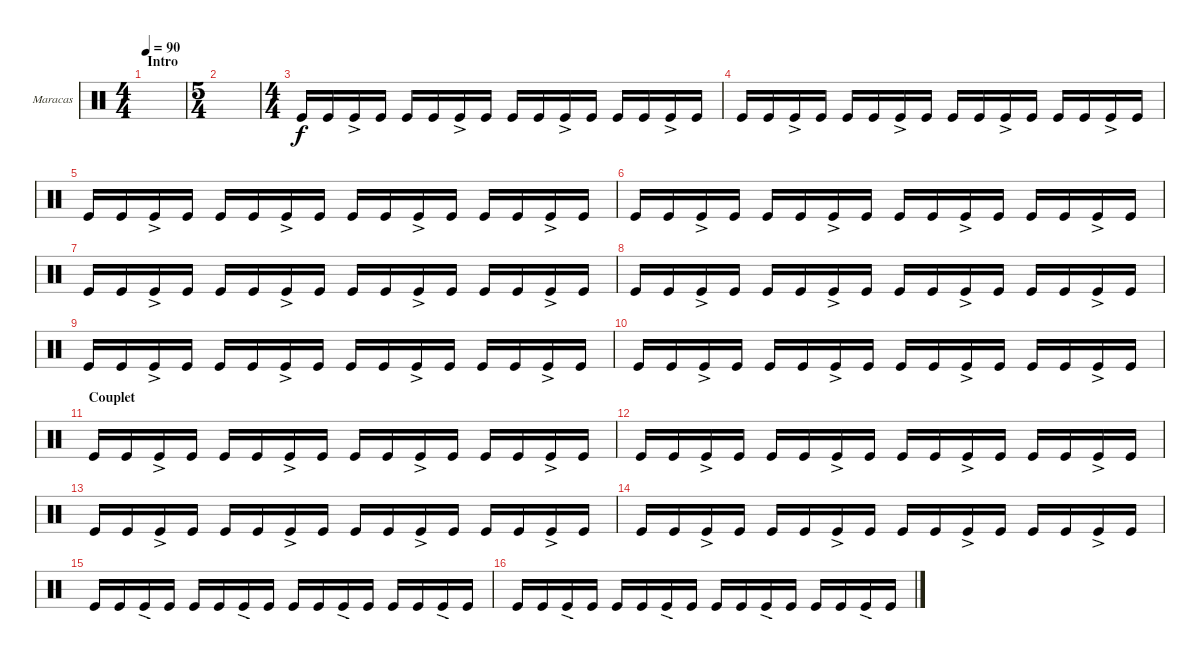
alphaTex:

\defaultSystemsLayout 4
\bracketExtendMode groupsimilarinstruments
\firstSystemTrackNameOrientation horizontal
\otherSystemsTrackNameOrientation horizontal
\track ("Maracas" "Maracas") {instrument percussion}
\staff {score}
\articulation defaults
\ts (4 4)
\section ("" "Intro")
\tempo 90
\clef neutral
\scale
0.474178
\ks c
|
\ts (5 4)
\scale
0.262911 |
\ts (4 4)
\scale
0.262911 "Kick (hit)".16 "Kick (hit)".16 "Kick (hit)"{ac}.16 "Kick (hit)".16 "Kick (hit)".16 "Kick (hit)".16 "Kick (hit)"{ac}.16 "Kick (hit)".16 "Kick (hit)".16 "Kick (hit)".16 "Kick (hit)"{ac}.16 "Kick (hit)".16 "Kick (hit)".16 "Kick (hit)".16 "Kick (hit)"{ac}.16 "Kick (hit)".16 |
\scale
0.333333 "Kick (hit)".16 "Kick (hit)".16 "Kick (hit)"{ac}.16 "Kick (hit)".16 "Kick (hit)".16 "Kick (hit)".16 "Kick (hit)"{ac}.16 "Kick (hit)".16 "Kick (hit)".16 "Kick (hit)".16 "Kick (hit)"{ac}.16 "Kick (hit)".16 "Kick (hit)".16 "Kick (hit)".16 "Kick (hit)"{ac}.16 "Kick (hit)".16 |
\scale
0.333333 "Kick (hit)".16 "Kick (hit)".16 "Kick (hit)"{ac}.16 "Kick (hit)".16 "Kick (hit)".16 "Kick (hit)".16 "Kick (hit)"{ac}.16 "Kick (hit)".16 "Kick (hit)".16 "Kick (hit)".16 "Kick (hit)"{ac}.16 "Kick (hit)".16 "Kick (hit)".16 "Kick (hit)".16 "Kick (hit)"{ac}.16 "Kick (hit)".16 |
\scale
0.333333 "Kick (hit)".16 "Kick (hit)".16 "Kick (hit)"{ac}.16 "Kick (hit)".16 "Kick (hit)".16 "Kick (hit)".16 "Kick (hit)"{ac}.16 "Kick (hit)".16 "Kick (hit)".16 "Kick (hit)".16 "Kick (hit)"{ac}.16 "Kick (hit)".16 "Kick (hit)".16 "Kick (hit)".16 "Kick (hit)"{ac}.16 "Kick (hit)".16 |
\scale
0.333333 "Kick (hit)".16 "Kick (hit)".16 "Kick (hit)"{ac}.16 "Kick (hit)".16 "Kick (hit)".16 "Kick (hit)".16 "Kick (hit)"{ac}.16 "Kick (hit)".16 "Kick (hit)".16 "Kick (hit)".16 "Kick (hit)"{ac}.16 "Kick (hit)".16 "Kick (hit)".16 "Kick (hit)".16 "Kick (hit)"{ac}.16 "Kick (hit)".16 |
\scale
0.333333 "Kick (hit)".16 "Kick (hit)".16 "Kick (hit)"{ac}.16 "Kick (hit)".16 "Kick (hit)".16 "Kick (hit)".16 "Kick (hit)"{ac}.16 "Kick (hit)".16 "Kick (hit)".16 "Kick (hit)".16 "Kick (hit)"{ac}.16 "Kick (hit)".16 "Kick (hit)".16 "Kick (hit)".16 "Kick (hit)"{ac}.16 "Kick (hit)".16 |
\scale
0.333333 "Kick (hit)".16 "Kick (hit)".16 "Kick (hit)"{ac}.16 "Kick (hit)".16 "Kick (hit)".16 "Kick (hit)".16 "Kick (hit)"{ac}.16 "Kick (hit)".16 "Kick (hit)".16 "Kick (hit)".16 "Kick (hit)"{ac}.16 "Kick (hit)".16 "Kick (hit)".16 "Kick (hit)".16 "Kick (hit)"{ac}.16 "Kick (hit)".16 |
\scale
0.333333 "Kick (hit)".16 "Kick (hit)".16 "Kick (hit)"{ac}.16 "Kick (hit)".16 "Kick (hit)".16 "Kick (hit)".16 "Kick (hit)"{ac}.16 "Kick (hit)".16 "Kick (hit)".16 "Kick (hit)".16 "Kick (hit)"{ac}.16 "Kick (hit)".16 "Kick (hit)".16 "Kick (hit)".16 "Kick (hit)"{ac}.16 "Kick (hit)".16 |
\section ("" "Couplet")
\scale
0.333333 "Kick (hit)".16 "Kick (hit)".16 "Kick (hit)"{ac}.16 "Kick (hit)".16 "Kick (hit)".16 "Kick (hit)".16 "Kick (hit)"{ac}.16 "Kick (hit)".16 "Kick (hit)".16 "Kick (hit)".16 "Kick (hit)"{ac}.16 "Kick (hit)".16 "Kick (hit)".16 "Kick (hit)".16 "Kick (hit)"{ac}.16 "Kick (hit)".16 |
\scale
0.333333 "Kick (hit)".16 "Kick (hit)".16 "Kick (hit)"{ac}.16 "Kick (hit)".16 "Kick (hit)".16 "Kick (hit)".16 "Kick (hit)"{ac}.16 "Kick (hit)".16 "Kick (hit)".16 "Kick (hit)".16 "Kick (hit)"{ac}.16 "Kick (hit)".16 "Kick (hit)".16 "Kick (hit)".16 "Kick (hit)"{ac}.16 "Kick (hit)".16 |
\scale
0.333333 "Kick (hit)".16 "Kick (hit)".16 "Kick (hit)"{ac}.16 "Kick (hit)".16 "Kick (hit)".16 "Kick (hit)".16 "Kick (hit)"{ac}.16 "Kick (hit)".16 "Kick (hit)".16 "Kick (hit)".16 "Kick (hit)"{ac}.16 "Kick (hit)".16 "Kick (hit)".16 "Kick (hit)".16 "Kick (hit)"{ac}.16 "Kick (hit)".16 |
\scale
0.333333 "Kick (hit)".16 "Kick (hit)".16 "Kick (hit)"{ac}.16 "Kick (hit)".16 "Kick (hit)".16 "Kick (hit)".16 "Kick (hit)"{ac}.16 "Kick (hit)".16 "Kick (hit)".16 "Kick (hit)".16 "Kick (hit)"{ac}.16 "Kick (hit)".16 "Kick (hit)".16 "Kick (hit)".16 "Kick (hit)"{ac}.16 "Kick (hit)".16 |
\scale
0.333333 "Kick (hit)".16 "Kick (hit)".16 "Kick (hit)"{ac}.16 "Kick (hit)".16 "Kick (hit)".16 "Kick (hit)".16 "Kick (hit)"{ac}.16 "Kick (hit)".16 "Kick (hit)".16 "Kick (hit)".16 "Kick (hit)"{ac}.16 "Kick (hit)".16 "Kick (hit)".16 "Kick (hit)".16 "Kick (hit)"{ac}.16 "Kick (hit)".16 |
\scale
0.333333 "Kick (hit)".16 "Kick (hit)".16 "Kick (hit)"{ac}.16 "Kick (hit)".16 "Kick (hit)".16 "Kick (hit)".16 "Kick (hit)"{ac}.16 "Kick (hit)".16 "Kick (hit)".16 "Kick (hit)".16 "Kick (hit)"{ac}.16 "Kick (hit)".16 "Kick (hit)".16 "Kick (hit)".16 "Kick (hit)"{ac}.16 "Kick (hit)".16
